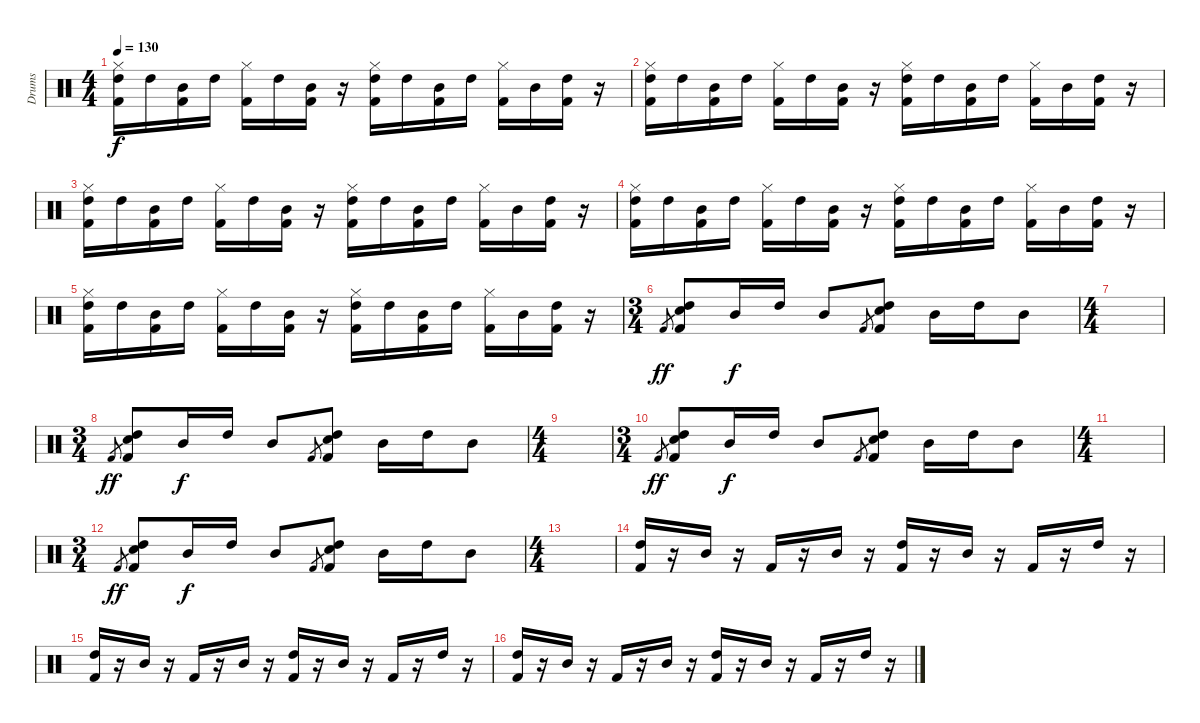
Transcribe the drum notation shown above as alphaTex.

\track ("Drums" "Drums") {instrument percussion}
\staff {score}
\articulation defaults
\ts (4 4)
\tempo 130
\clef neutral
\ks c
("Hi-Hat (closed)" "Kick (hit) 2" "High Tom (hit)").16{dy f} "High Tom (hit)".16 ("Kick (hit) 2" "Mid Tom (hit)").16 "High Tom (hit)".16 ("Hi-Hat (closed)" "Kick (hit) 2").16 "High Tom (hit)".16 ("Kick (hit) 2" "Mid Tom (hit)").16 r.16 ("Hi-Hat (closed)" "Kick (hit) 2" "High Tom (hit)").16 "High Tom (hit)".16 ("Kick (hit) 2" "Mid Tom (hit)").16 "High Tom (hit)".16 ("Hi-Hat (closed)" "Kick (hit) 2").16 "Mid Tom (hit)".16 ("Kick (hit) 2" "High Tom (hit)").16 r.16 |
("Hi-Hat (closed)" "Kick (hit) 2" "High Tom (hit)").16 "High Tom (hit)".16 ("Kick (hit) 2" "Mid Tom (hit)").16 "High Tom (hit)".16 ("Hi-Hat (closed)" "Kick (hit) 2").16 "High Tom (hit)".16 ("Kick (hit) 2" "Mid Tom (hit)").16 r.16 ("Hi-Hat (closed)" "Kick (hit) 2" "High Tom (hit)").16 "High Tom (hit)".16 ("Kick (hit) 2" "Mid Tom (hit)").16 "High Tom (hit)".16 ("Hi-Hat (closed)" "Kick (hit) 2").16 "Mid Tom (hit)".16 ("Kick (hit) 2" "High Tom (hit)").16 r.16 |
("Hi-Hat (closed)" "Kick (hit) 2" "High Tom (hit)").16 "High Tom (hit)".16 ("Kick (hit) 2" "Mid Tom (hit)").16 "High Tom (hit)".16 ("Hi-Hat (closed)" "Kick (hit) 2").16 "High Tom (hit)".16 ("Kick (hit) 2" "Mid Tom (hit)").16 r.16 ("Hi-Hat (closed)" "Kick (hit) 2" "High Tom (hit)").16 "High Tom (hit)".16 ("Kick (hit) 2" "Mid Tom (hit)").16 "High Tom (hit)".16 ("Hi-Hat (closed)" "Kick (hit) 2").16 "Mid Tom (hit)".16 ("Kick (hit) 2" "High Tom (hit)").16 r.16 |
("Hi-Hat (closed)" "Kick (hit) 2" "High Tom (hit)").16 "High Tom (hit)".16 ("Kick (hit) 2" "Mid Tom (hit)").16 "High Tom (hit)".16 ("Hi-Hat (closed)" "Kick (hit) 2").16 "High Tom (hit)".16 ("Kick (hit) 2" "Mid Tom (hit)").16 r.16 ("Hi-Hat (closed)" "Kick (hit) 2" "High Tom (hit)").16 "High Tom (hit)".16 ("Kick (hit) 2" "Mid Tom (hit)").16 "High Tom (hit)".16 ("Hi-Hat (closed)" "Kick (hit) 2").16 "Mid Tom (hit)".16 ("Kick (hit) 2" "High Tom (hit)").16 r.16 |
("Hi-Hat (closed)" "Kick (hit) 2" "High Tom (hit)").16 "High Tom (hit)".16 ("Kick (hit) 2" "Mid Tom (hit)").16 "High Tom (hit)".16 ("Hi-Hat (closed)" "Kick (hit) 2").16 "High Tom (hit)".16 ("Kick (hit) 2" "Mid Tom (hit)").16 r.16 ("Hi-Hat (closed)" "Kick (hit) 2" "High Tom (hit)").16 "High Tom (hit)".16 ("Kick (hit) 2" "Mid Tom (hit)").16 "High Tom (hit)".16 ("Hi-Hat (closed)" "Kick (hit) 2").16 "Mid Tom (hit)".16 ("Kick (hit) 2" "High Tom (hit)").16 r.16 |
\ts (3 4)
"Kick (hit) 2".8{gr dy ff} ("Kick (hit) 2" "High Tom (hit)" "Snare (hit) 2").8 "Mid Tom (hit)".16{dy f} "High Tom (hit)".16 "Mid Tom (hit)".8 "Kick (hit) 2".8{gr} ("Kick (hit) 2" "High Tom (hit)" "Snare (hit) 2").8 "Mid Tom (hit)".16 "High Tom (hit)".16 "Mid Tom (hit)".8 |
\ts (4 4)
|
\ts (3 4)
"Kick (hit) 2".8{gr dy ff} ("Kick (hit) 2" "High Tom (hit)" "Snare (hit) 2").8 "Mid Tom (hit)".16{dy f} "High Tom (hit)".16 "Mid Tom (hit)".8 "Kick (hit) 2".8{gr} ("Kick (hit) 2" "High Tom (hit)" "Snare (hit) 2").8 "Mid Tom (hit)".16 "High Tom (hit)".16 "Mid Tom (hit)".8 |
\ts (4 4)
|
\ts (3 4)
"Kick (hit) 2".8{gr dy ff} ("Kick (hit) 2" "High Tom (hit)" "Snare (hit) 2").8 "Mid Tom (hit)".16{dy f} "High Tom (hit)".16 "Mid Tom (hit)".8 "Kick (hit) 2".8{gr} ("Kick (hit) 2" "High Tom (hit)" "Snare (hit) 2").8 "Mid Tom (hit)".16 "High Tom (hit)".16 "Mid Tom (hit)".8 |
\ts (4 4)
|
\ts (3 4)
"Kick (hit) 2".8{gr dy ff} ("Kick (hit) 2" "High Tom (hit)" "Snare (hit) 2").8 "Mid Tom (hit)".16{dy f} "High Tom (hit)".16 "Mid Tom (hit)".8 "Kick (hit) 2".8{gr} ("Kick (hit) 2" "High Tom (hit)" "Snare (hit) 2").8 "Mid Tom (hit)".16 "High Tom (hit)".16 "Mid Tom (hit)".8 |
\ts (4 4)
|
("Kick (hit) 2" "High Tom (hit)").16 r.16 "Mid Tom (hit)".16 r.16 "Kick (hit) 2".16 r.16 "Mid Tom (hit)".16 r.16 ("Kick (hit) 2" "High Tom (hit)").16 r.16 "Mid Tom (hit)".16 r.16 "Kick (hit) 2".16 r.16 "High Tom (hit)".16 r.16 |
("Kick (hit) 2" "High Tom (hit)").16 r.16 "Mid Tom (hit)".16 r.16 "Kick (hit) 2".16 r.16 "Mid Tom (hit)".16 r.16 ("Kick (hit) 2" "High Tom (hit)").16 r.16 "Mid Tom (hit)".16 r.16 "Kick (hit) 2".16 r.16 "High Tom (hit)".16 r.16 |
("Kick (hit) 2" "High Tom (hit)").16 r.16 "Mid Tom (hit)".16 r.16 "Kick (hit) 2".16 r.16 "Mid Tom (hit)".16 r.16 ("Kick (hit) 2" "High Tom (hit)").16 r.16 "Mid Tom (hit)".16 r.16 "Kick (hit) 2".16 r.16 "High Tom (hit)".16 r.16
